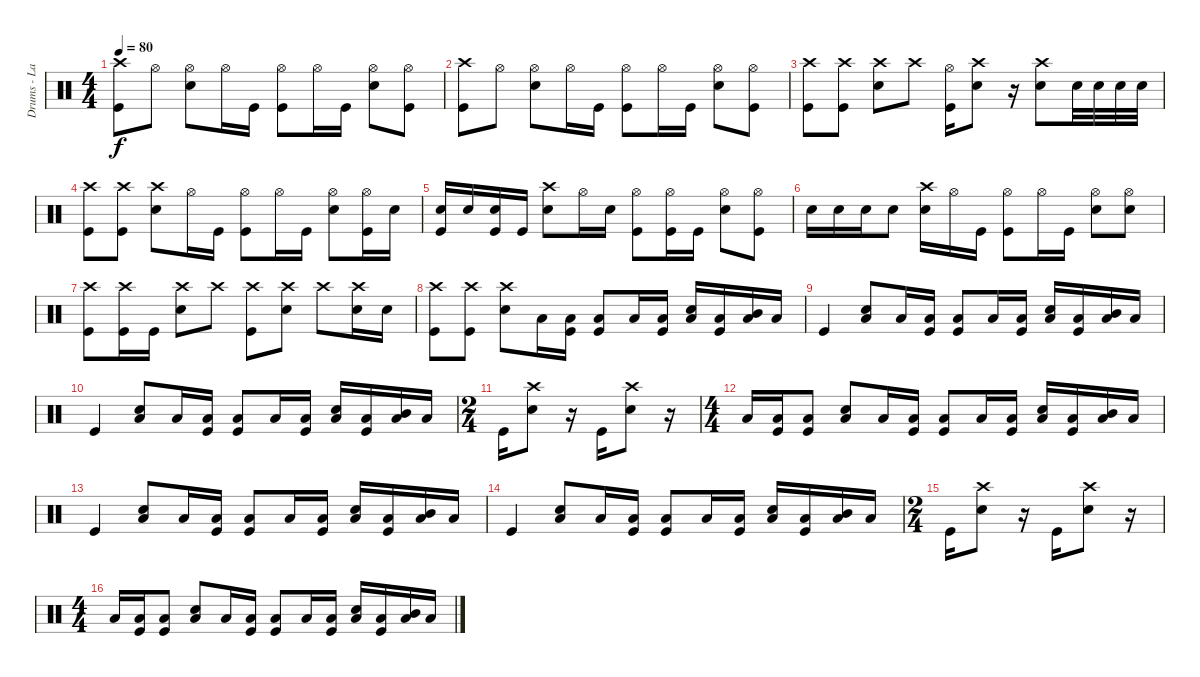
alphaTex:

\track ("Drums - Lars" "Drums - La") {instrument percussion}
\staff {score}
\articulation defaults
\ts (4 4)
\tempo 80
\clef neutral
\ks c
("Crash high (hit)" "Kick (hit)").8{dy f} "Hi-Hat (open)".8 ("Hi-Hat (open)" "Snare (hit) 2").8 "Hi-Hat (open)".16 "Kick (hit)".16 ("Hi-Hat (open)" "Kick (hit)").8 "Hi-Hat (open)".16 "Kick (hit)".16 ("Hi-Hat (open)" "Snare (hit) 2").8 ("Hi-Hat (open)" "Kick (hit)").8 |
("Crash high (hit)" "Kick (hit)").8 "Hi-Hat (open)".8 ("Hi-Hat (open)" "Snare (hit) 2").8 "Hi-Hat (open)".16 "Kick (hit)".16 ("Hi-Hat (open)" "Kick (hit)").8 "Hi-Hat (open)".16 "Kick (hit)".16 ("Hi-Hat (open)" "Snare (hit) 2").8 ("Hi-Hat (open)" "Kick (hit)").8 |
("Crash high (hit)" "Kick (hit)").8 ("Crash high (hit)" "Kick (hit)").8 ("Crash high (hit)" "Snare (hit) 2").8 "Crash high (hit)".8 ("Hi-Hat (open)" "Kick (hit)").16 ("Crash high (hit)" "Snare (hit) 2").8 r.16 ("Crash high (hit)" "Snare (hit) 2").8 "Snare (hit) 2".32 "Snare (hit) 2".32 "Snare (hit) 2".32 "Snare (hit) 2".32 |
("Crash high (hit)" "Kick (hit)").8 ("Crash high (hit)" "Kick (hit)").8 ("Crash high (hit)" "Snare (hit) 2").8 "Hi-Hat (open)".16 "Kick (hit)".16 ("Hi-Hat (open)" "Kick (hit)").8 "Hi-Hat (open)".16 "Kick (hit)".16 ("Hi-Hat (open)" "Snare (hit) 2").8 ("Hi-Hat (open)" "Kick (hit)").16 "Snare (hit) 2".16 |
("Snare (hit) 2" "Kick (hit)").16 "Snare (hit) 2".16 ("Snare (hit) 2" "Kick (hit)").16 "Kick (hit)".16 ("Crash high (hit)" "Snare (hit) 2").8 "Hi-Hat (open)".16 "Snare (hit) 2".16 ("Hi-Hat (open)" "Kick (hit)").8 ("Hi-Hat (open)" "Kick (hit)").16 "Kick (hit)".16 ("Hi-Hat (open)" "Snare (hit) 2").8 ("Hi-Hat (open)" "Kick (hit)").8 |
"Snare (hit) 2".16 "Snare (hit) 2".16 "Snare (hit) 2".16 "Snare (hit) 2".8 ("Crash high (hit)" "Snare (hit) 2").16 "Hi-Hat (open)".16 "Kick (hit)".16 ("Hi-Hat (open)" "Kick (hit)").8 "Hi-Hat (open)".16 "Kick (hit)".16 ("Hi-Hat (open)" "Snare (hit) 2").8 ("Hi-Hat (open)" "Snare (hit) 2").8 |
("Crash high (hit)" "Kick (hit)").8 ("Crash high (hit)" "Kick (hit)").16 "Kick (hit)".16 ("Crash high (hit)" "Snare (hit) 2").8 "Crash high (hit)".8 ("Crash high (hit)" "Kick (hit)").8 ("Crash high (hit)" "Snare (hit) 2").8 "Crash high (hit)".8 ("Crash high (hit)" "Snare (hit) 2").16 "Snare (hit) 2".16 |
("Crash high (hit)" "Kick (hit)").8 ("Crash high (hit)" "Kick (hit)").8 ("Crash high (hit)" "Snare (hit) 2").8 "Low Floor Tom (hit)".16 ("Low Floor Tom (hit)" "Kick (hit)").16 ("Low Floor Tom (hit)" "Kick (hit)").8 "Low Floor Tom (hit)".16 ("Low Floor Tom (hit)" "Kick (hit)").16 ("Snare (hit) 2" "Low Floor Tom (hit)").16 ("Low Floor Tom (hit)" "Kick (hit)").16 ("Mid Tom (hit)" "Low Floor Tom (hit)").16 "Low Floor Tom (hit)".16 |
"Kick (hit)".4 ("Snare (hit) 2" "Low Floor Tom (hit)").8 "Low Floor Tom (hit)".16 ("Low Floor Tom (hit)" "Kick (hit)").16 ("Low Floor Tom (hit)" "Kick (hit)").8 "Low Floor Tom (hit)".16 ("Low Floor Tom (hit)" "Kick (hit)").16 ("Snare (hit) 2" "Low Floor Tom (hit)").16 ("Low Floor Tom (hit)" "Kick (hit)").16 ("Mid Tom (hit)" "Low Floor Tom (hit)").16 "Low Floor Tom (hit)".16 |
"Kick (hit)".4 ("Snare (hit) 2" "Low Floor Tom (hit)").8 "Low Floor Tom (hit)".16 ("Low Floor Tom (hit)" "Kick (hit)").16 ("Low Floor Tom (hit)" "Kick (hit)").8 "Low Floor Tom (hit)".16 ("Low Floor Tom (hit)" "Kick (hit)").16 ("Snare (hit) 2" "Low Floor Tom (hit)").16 ("Low Floor Tom (hit)" "Kick (hit)").16 ("Mid Tom (hit)" "Low Floor Tom (hit)").16 "Low Floor Tom (hit)".16 |
\ts (2 4)
"Kick (hit)".16 ("Crash high (hit)" "Snare (hit) 2").8 r.16 "Kick (hit)".16 ("Crash high (hit)" "Snare (hit) 2").8 r.16 |
\ts (4 4)
"Low Floor Tom (hit)".16 ("Low Floor Tom (hit)" "Kick (hit)").16 ("Low Floor Tom (hit)" "Kick (hit)").8 ("Snare (hit) 2" "Low Floor Tom (hit)").8 "Low Floor Tom (hit)".16 ("Low Floor Tom (hit)" "Kick (hit)").16 ("Low Floor Tom (hit)" "Kick (hit)").8 "Low Floor Tom (hit)".16 ("Low Floor Tom (hit)" "Kick (hit)").16 ("Snare (hit) 2" "Low Floor Tom (hit)").16 ("Low Floor Tom (hit)" "Kick (hit)").16 ("Mid Tom (hit)" "Low Floor Tom (hit)").16 "Low Floor Tom (hit)".16 |
"Kick (hit)".4 ("Snare (hit) 2" "Low Floor Tom (hit)").8 "Low Floor Tom (hit)".16 ("Low Floor Tom (hit)" "Kick (hit)").16 ("Low Floor Tom (hit)" "Kick (hit)").8 "Low Floor Tom (hit)".16 ("Low Floor Tom (hit)" "Kick (hit)").16 ("Snare (hit) 2" "Low Floor Tom (hit)").16 ("Low Floor Tom (hit)" "Kick (hit)").16 ("Mid Tom (hit)" "Low Floor Tom (hit)").16 "Low Floor Tom (hit)".16 |
"Kick (hit)".4 ("Snare (hit) 2" "Low Floor Tom (hit)").8 "Low Floor Tom (hit)".16 ("Low Floor Tom (hit)" "Kick (hit)").16 ("Low Floor Tom (hit)" "Kick (hit)").8 "Low Floor Tom (hit)".16 ("Low Floor Tom (hit)" "Kick (hit)").16 ("Snare (hit) 2" "Low Floor Tom (hit)").16 ("Low Floor Tom (hit)" "Kick (hit)").16 ("Mid Tom (hit)" "Low Floor Tom (hit)").16 "Low Floor Tom (hit)".16 |
\ts (2 4)
"Kick (hit)".16 ("Crash high (hit)" "Snare (hit) 2").8 r.16 "Kick (hit)".16 ("Crash high (hit)" "Snare (hit) 2").8 r.16 |
\ts (4 4)
"Low Floor Tom (hit)".16 ("Low Floor Tom (hit)" "Kick (hit)").16 ("Low Floor Tom (hit)" "Kick (hit)").8 ("Snare (hit) 2" "Low Floor Tom (hit)").8 "Low Floor Tom (hit)".16 ("Low Floor Tom (hit)" "Kick (hit)").16 ("Low Floor Tom (hit)" "Kick (hit)").8 "Low Floor Tom (hit)".16 ("Low Floor Tom (hit)" "Kick (hit)").16 ("Snare (hit) 2" "Low Floor Tom (hit)").16 ("Low Floor Tom (hit)" "Kick (hit)").16 ("Mid Tom (hit)" "Low Floor Tom (hit)").16 "Low Floor Tom (hit)".16
